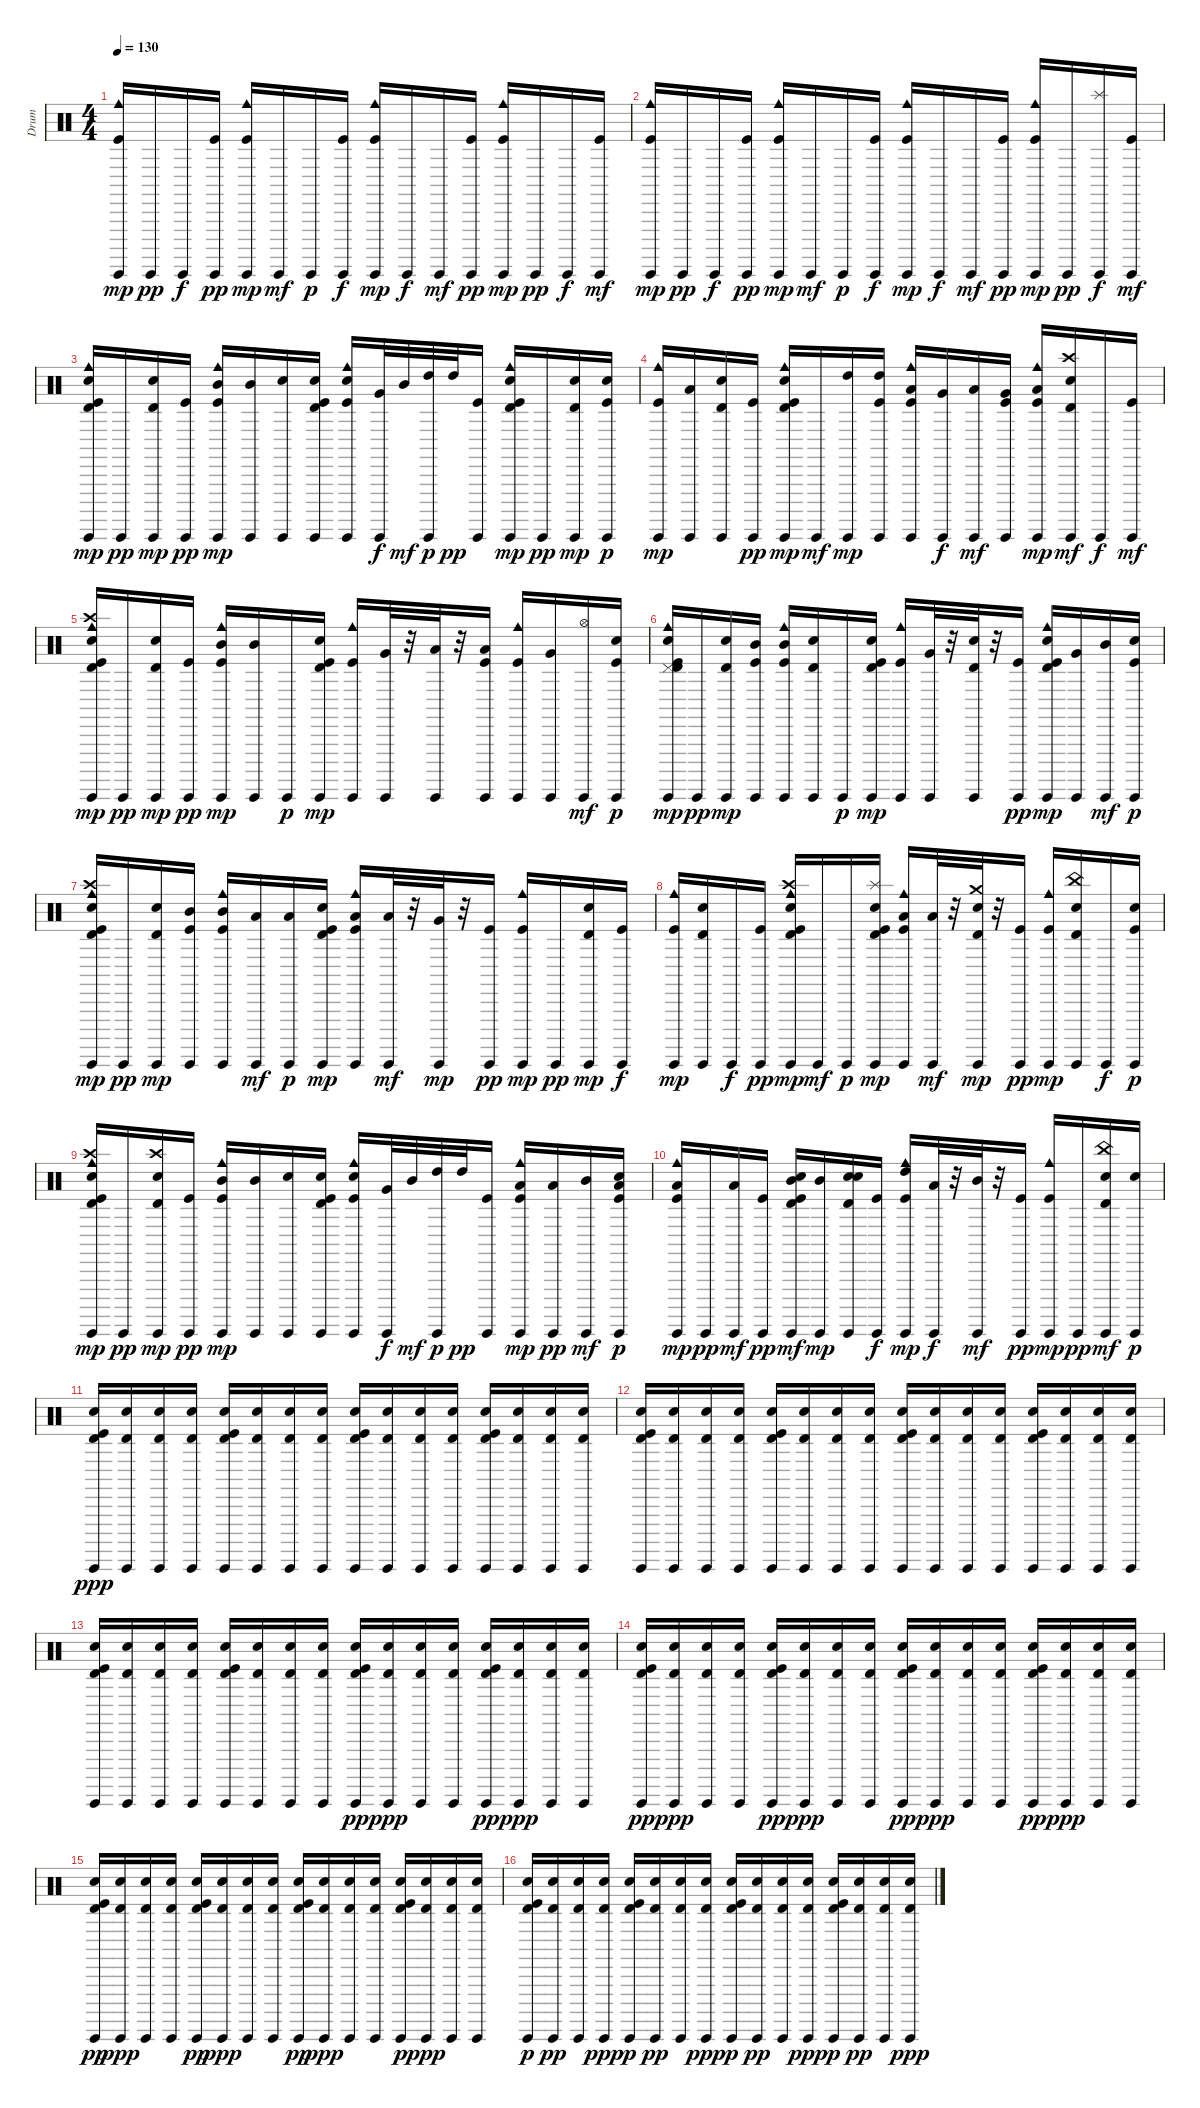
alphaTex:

\track ("Drum" "Drum") {instrument percussion}
\staff {score}
\articulation defaults
\ts (4 4)
\tempo 130
\clef neutral
\ks c
("Guiro (hit)" "Cowbell medium (hit)" "Kick (hit)").16{dy mp} "Guiro (hit)".16{dy pp} "Guiro (hit)".16{dy f} ("Guiro (hit)" "Kick (hit)").16{dy pp} ("Guiro (hit)" "Cowbell medium (hit)" "Kick (hit)").16{dy mp} "Guiro (hit)".16{dy mf} "Guiro (hit)".16{dy p} ("Guiro (hit)" "Kick (hit)").16{dy f} ("Guiro (hit)" "Cowbell medium (hit)" "Kick (hit)").16{dy mp} "Guiro (hit)".16{dy f} "Guiro (hit)".16{dy mf} ("Guiro (hit)" "Kick (hit)").16{dy pp} ("Guiro (hit)" "Cowbell medium (hit)" "Kick (hit)").16{dy mp} "Guiro (hit)".16{dy pp} "Guiro (hit)".16{dy f} ("Guiro (hit)" "Kick (hit)").16{dy mf} |
("Guiro (hit)" "Cowbell medium (hit)" "Kick (hit)").16{dy mp} "Guiro (hit)".16{dy pp} "Guiro (hit)".16{dy f} ("Guiro (hit)" "Kick (hit)").16{dy pp} ("Guiro (hit)" "Cowbell medium (hit)" "Kick (hit)").16{dy mp} "Guiro (hit)".16{dy mf} "Guiro (hit)".16{dy p} ("Guiro (hit)" "Kick (hit)").16{dy f} ("Guiro (hit)" "Cowbell medium (hit)" "Kick (hit)").16{dy mp} "Guiro (hit)".16{dy f} "Guiro (hit)".16{dy mf} ("Guiro (hit)" "Kick (hit)").16{dy pp} ("Guiro (hit)" "Cowbell medium (hit)" "Kick (hit)").16{dy mp} "Guiro (hit)".16{dy pp} ("Guiro (hit)" "Splash (hit)").16{dy f} ("Guiro (hit)" "Kick (hit)").16{dy mf} |
("Guiro (hit)" "Electric Snare (hit)" "Cowbell medium (hit)" "Timbale high (hit)" "Kick (hit)").16{dy mp} "Guiro (hit)".16{dy pp} ("Guiro (hit)" "Electric Snare (hit)" "Timbale high (hit)").16{dy mp} ("Guiro (hit)" "Kick (hit)").16{dy pp} ("Guiro (hit)" "Mid Tom (hit)" "Cowbell medium (hit)" "Kick (hit)").16{dy mp} ("Guiro (hit)" "Mid Tom (hit)").16 ("Guiro (hit)" "Electric Snare (hit)").16 ("Guiro (hit)" "Electric Snare (hit)" "Timbale high (hit)" "Kick (hit)").16 ("Guiro (hit)" "Electric Snare (hit)" "Cowbell medium (hit)" "Kick (hit)").16 ("Guiro (hit)" "Very Low Tom (hit)").32{dy f} "Mid Tom (hit)".32{dy mf} ("Guiro (hit)" "High Tom (hit)").32{dy p} "High Tom (hit)".32{dy pp} ("Guiro (hit)" "Kick (hit)").16 ("Guiro (hit)" "Timbale high (hit)" "Cowbell medium (hit)" "Electric Snare (hit)" "Kick (hit)").16{dy mp} "Guiro (hit)".16{dy pp} ("Guiro (hit)" "Timbale high (hit)" "Electric Snare (hit)").16{dy mp} ("Guiro (hit)" "Electric Snare (hit)" "Kick (hit)").16{dy p} |
("Guiro (hit)" "Cowbell medium (hit)" "Kick (hit)").16{dy mp} ("Guiro (hit)" "Low Tom (hit)").16 ("Timbale high (hit)" "Guiro (hit)" "Electric Snare (hit)").16 ("Guiro (hit)" "Kick (hit)").16{dy pp} ("Guiro (hit)" "Timbale high (hit)" "Electric Snare (hit)" "Cowbell medium (hit)" "Kick (hit)").16{dy mp} "Guiro (hit)".16{dy mf} ("Guiro (hit)" "High Tom (hit)").16{dy mp} ("Guiro (hit)" "High Tom (hit)" "Kick (hit)").16 ("Guiro (hit)" "Low Tom (hit)" "Cowbell medium (hit)" "Kick (hit)").16 ("Guiro (hit)" "Very Low Tom (hit)").16{dy f} ("Guiro (hit)" "Low Tom (hit)").16{dy mf} ("Guiro (hit)" "Very Low Tom (hit)" "Kick (hit)").16 ("Guiro (hit)" "Low Tom (hit)" "Cowbell medium (hit)" "Kick (hit)").16{dy mp} ("Guiro (hit)" "Timbale high (hit)" "Electric Snare (hit)" "Crash high (hit)").16{dy mf} "Guiro (hit)".16{dy f} ("Guiro (hit)" "Kick (hit)").16{dy mf} |
("Crash high (hit)" "Guiro (hit)" "Electric Snare (hit)" "Cowbell medium (hit)" "Timbale high (hit)" "Kick (hit)").16{dy mp} "Guiro (hit)".16{dy pp} ("Guiro (hit)" "Electric Snare (hit)" "Timbale high (hit)").16{dy mp} ("Guiro (hit)" "Kick (hit)").16{dy pp} ("Guiro (hit)" "Mid Tom (hit)" "Cowbell medium (hit)" "Kick (hit)").16{dy mp} ("Guiro (hit)" "Mid Tom (hit)").16 "Guiro (hit)".16{dy p} ("Guiro (hit)" "Electric Snare (hit)" "Timbale high (hit)" "Kick (hit)").16{dy mp} ("Guiro (hit)" "Cowbell medium (hit)" "Kick (hit)").16 ("Guiro (hit)" "Very Low Tom (hit)").32 r.32 ("Guiro (hit)" "Low Tom (hit)").32 r.32 ("Guiro (hit)" "Low Tom (hit)" "Kick (hit)").16 ("Guiro (hit)" "Cowbell medium (hit)" "Kick (hit)").16 ("Guiro (hit)" "Very Low Tom (hit)").16 ("Guiro (hit)" "Hi-Hat (open)").16{dy mf} ("Guiro (hit)" "Electric Snare (hit)" "Kick (hit)").16{dy p} |
("Pedal Hi-Hat (hit)" "Guiro (hit)" "Electric Snare (hit)" "Cowbell medium (hit)" "Timbale high (hit)" "Kick (hit)").16{dy mp} "Guiro (hit)".16{dy pp} ("Guiro (hit)" "Electric Snare (hit)" "Timbale high (hit)").16{dy mp} ("Guiro (hit)" "Mid Tom (hit)" "Kick (hit)").16 ("Guiro (hit)" "Mid Tom (hit)" "Cowbell medium (hit)" "Kick (hit)").16 ("Guiro (hit)" "Electric Snare (hit)" "Timbale high (hit)").16 "Guiro (hit)".16{dy p} ("Guiro (hit)" "Electric Snare (hit)" "Timbale high (hit)" "Kick (hit)").16{dy mp} ("Guiro (hit)" "Cowbell medium (hit)" "Kick (hit)").16 ("Guiro (hit)" "Very Low Tom (hit)").32 r.32 ("Guiro (hit)" "Timbale high (hit)" "Electric Snare (hit)").32 r.32 ("Guiro (hit)" "Kick (hit)").16{dy pp} ("Guiro (hit)" "Timbale high (hit)" "Cowbell medium (hit)" "Electric Snare (hit)" "Kick (hit)").16{dy mp} ("Guiro (hit)" "Very Low Tom (hit)").16 ("Guiro (hit)" "Mid Tom (hit)").16{dy mf} ("Guiro (hit)" "Electric Snare (hit)" "Kick (hit)").16{dy p} |
("Crash high (hit)" "Guiro (hit)" "Electric Snare (hit)" "Cowbell medium (hit)" "Timbale high (hit)" "Kick (hit)").16{dy mp} "Guiro (hit)".16{dy pp} ("Guiro (hit)" "Electric Snare (hit)" "Timbale high (hit)").16{dy mp} ("Guiro (hit)" "Mid Tom (hit)" "Kick (hit)").16 ("Guiro (hit)" "Mid Tom (hit)" "Cowbell medium (hit)" "Kick (hit)").16 ("Guiro (hit)" "Low Tom (hit)").16{dy mf} ("Guiro (hit)" "Low Tom (hit)").16{dy p} ("Guiro (hit)" "Electric Snare (hit)" "Timbale high (hit)" "Kick (hit)").16{dy mp} ("Guiro (hit)" "Low Floor Tom (hit)" "Cowbell medium (hit)" "Kick (hit)").16 ("Guiro (hit)" "Low Tom (hit)").32{dy mf} r.32 ("Guiro (hit)" "Very Low Tom (hit)").32{dy mp} r.32 ("Guiro (hit)" "Kick (hit)").16{dy pp} ("Guiro (hit)" "Cowbell medium (hit)" "Kick (hit)").16{dy mp} "Guiro (hit)".16{dy pp} ("Guiro (hit)" "Timbale high (hit)" "Electric Snare (hit)").16{dy mp} ("Guiro (hit)" "Kick (hit)").16{dy f} |
("Guiro (hit)" "Cowbell medium (hit)" "Kick (hit)").16{dy mp} ("Guiro (hit)" "Electric Snare (hit)" "Timbale high (hit)").16 "Guiro (hit)".16{dy f} ("Guiro (hit)" "Kick (hit)").16{dy pp} ("Guiro (hit)" "Crash high (hit)" "Electric Snare (hit)" "Timbale high (hit)" "Cowbell medium (hit)" "Kick (hit)").16{dy mp} "Guiro (hit)".16{dy mf} "Guiro (hit)".16{dy p} ("Guiro (hit)" "Splash (hit)" "Electric Snare (hit)" "Timbale high (hit)" "Kick (hit)").16{dy mp} ("Guiro (hit)" "Low Floor Tom (hit)" "Cowbell medium (hit)" "Kick (hit)").16 ("Guiro (hit)" "Low Tom (hit)").32{dy mf} r.32 ("Guiro (hit)" "Crash medium (hit)" "Electric Snare (hit)" "Timbale high (hit)").32{dy mp} r.32 ("Guiro (hit)" "Kick (hit)").16{dy pp} ("Guiro (hit)" "Cowbell medium (hit)" "Kick (hit)").16{dy mp} ("Guiro (hit)" "China (hit)" "Electric Snare (hit)" "Timbale high (hit)").16 "Guiro (hit)".16{dy f} ("Guiro (hit)" "Electric Snare (hit)" "Kick (hit)").16{dy p} |
("Crash high (hit)" "Guiro (hit)" "Electric Snare (hit)" "Cowbell medium (hit)" "Timbale high (hit)" "Kick (hit)").16{dy mp} "Guiro (hit)".16{dy pp} ("Crash high (hit)" "Guiro (hit)" "Electric Snare (hit)" "Timbale high (hit)").16{dy mp} ("Guiro (hit)" "Kick (hit)").16{dy pp} ("Guiro (hit)" "Mid Tom (hit)" "Cowbell medium (hit)" "Kick (hit)").16{dy mp} ("Guiro (hit)" "Mid Tom (hit)").16 ("Guiro (hit)" "Electric Snare (hit)").16 ("Guiro (hit)" "Electric Snare (hit)" "Timbale high (hit)" "Kick (hit)").16 ("Guiro (hit)" "Electric Snare (hit)" "Cowbell medium (hit)" "Kick (hit)").16 ("Guiro (hit)" "Very Low Tom (hit)").32{dy f} "Mid Tom (hit)".32{dy mf} ("Guiro (hit)" "High Tom (hit)").32{dy p} "High Tom (hit)".32{dy pp} ("Guiro (hit)" "Kick (hit)").16 ("Guiro (hit)" "Low Tom (hit)" "Cowbell medium (hit)" "Kick (hit)").16{dy mp} ("Guiro (hit)" "Low Tom (hit)").16{dy pp} ("Guiro (hit)" "Mid Tom (hit)").16{dy mf} ("Guiro (hit)" "Low Tom (hit)" "Electric Snare (hit)" "Kick (hit)").16{dy p} |
("Guiro (hit)" "Low Tom (hit)" "Cowbell medium (hit)" "Kick (hit)").16{dy mp} "Guiro (hit)".16{dy pp} ("Guiro (hit)" "Low Tom (hit)").16{dy mf} ("Guiro (hit)" "Kick (hit)").16{dy pp} ("Guiro (hit)" "Timbale high (hit)" "Mid Tom (hit)" "Electric Snare (hit)" "Kick (hit)").16{dy mf} ("Guiro (hit)" "Mid Tom (hit)").16{dy mp} ("Guiro (hit)" "Timbale high (hit)" "Electric Snare (hit)" "Electric Snare (hit)").16 ("Guiro (hit)" "Kick (hit)").16{dy f} ("Guiro (hit)" "High Tom (hit)" "Cowbell medium (hit)" "Kick (hit)").16{dy mp} ("Guiro (hit)" "Low Tom (hit)").32{dy f} r.32 ("Guiro (hit)" "Mid Tom (hit)").32{dy mf} r.32 ("Guiro (hit)" "Kick (hit)").16{dy pp} ("Guiro (hit)" "Cowbell medium (hit)" "Kick (hit)").16{dy mp} "Guiro (hit)".16{dy pp} ("Guiro (hit)" "Timbale high (hit)" "Electric Snare (hit)" "China (hit)").16{dy mf} ("Guiro (hit)" "Electric Snare (hit)").16{dy p} |
("Guiro (hit)" "Electric Snare (hit)" "Timbale high (hit)" "Kick (hit)").16{dy ppp} ("Guiro (hit)" "Electric Snare (hit)" "Timbale high (hit)").16 ("Guiro (hit)" "Electric Snare (hit)" "Timbale high (hit)").16 ("Guiro (hit)" "Electric Snare (hit)" "Timbale high (hit)").16 ("Guiro (hit)" "Electric Snare (hit)" "Timbale high (hit)" "Kick (hit)").16 ("Guiro (hit)" "Electric Snare (hit)" "Timbale high (hit)").16 ("Guiro (hit)" "Electric Snare (hit)" "Timbale high (hit)").16 ("Guiro (hit)" "Electric Snare (hit)" "Timbale high (hit)").16 ("Guiro (hit)" "Electric Snare (hit)" "Timbale high (hit)" "Kick (hit)").16 ("Guiro (hit)" "Electric Snare (hit)" "Timbale high (hit)").16 ("Guiro (hit)" "Electric Snare (hit)" "Timbale high (hit)").16 ("Guiro (hit)" "Electric Snare (hit)" "Timbale high (hit)").16 ("Guiro (hit)" "Electric Snare (hit)" "Timbale high (hit)" "Kick (hit)").16 ("Guiro (hit)" "Electric Snare (hit)" "Timbale high (hit)").16 ("Guiro (hit)" "Electric Snare (hit)" "Timbale high (hit)").16 ("Guiro (hit)" "Electric Snare (hit)" "Timbale high (hit)").16 |
("Guiro (hit)" "Electric Snare (hit)" "Timbale high (hit)" "Kick (hit)").16 ("Guiro (hit)" "Electric Snare (hit)" "Timbale high (hit)").16 ("Guiro (hit)" "Electric Snare (hit)" "Timbale high (hit)").16 ("Guiro (hit)" "Electric Snare (hit)" "Timbale high (hit)").16 ("Guiro (hit)" "Electric Snare (hit)" "Timbale high (hit)" "Kick (hit)").16 ("Guiro (hit)" "Electric Snare (hit)" "Timbale high (hit)").16 ("Guiro (hit)" "Electric Snare (hit)" "Timbale high (hit)").16 ("Guiro (hit)" "Electric Snare (hit)" "Timbale high (hit)").16 ("Guiro (hit)" "Electric Snare (hit)" "Timbale high (hit)" "Kick (hit)").16 ("Guiro (hit)" "Electric Snare (hit)" "Timbale high (hit)").16 ("Guiro (hit)" "Electric Snare (hit)" "Timbale high (hit)").16 ("Guiro (hit)" "Electric Snare (hit)" "Timbale high (hit)").16 ("Guiro (hit)" "Electric Snare (hit)" "Timbale high (hit)" "Kick (hit)").16 ("Guiro (hit)" "Electric Snare (hit)" "Timbale high (hit)").16 ("Guiro (hit)" "Electric Snare (hit)" "Timbale high (hit)").16 ("Guiro (hit)" "Electric Snare (hit)" "Timbale high (hit)").16 |
("Guiro (hit)" "Electric Snare (hit)" "Timbale high (hit)" "Kick (hit)").16 ("Guiro (hit)" "Electric Snare (hit)" "Timbale high (hit)").16 ("Guiro (hit)" "Electric Snare (hit)" "Timbale high (hit)").16 ("Guiro (hit)" "Electric Snare (hit)" "Timbale high (hit)").16 ("Guiro (hit)" "Electric Snare (hit)" "Timbale high (hit)" "Kick (hit)").16 ("Guiro (hit)" "Electric Snare (hit)" "Timbale high (hit)").16 ("Guiro (hit)" "Electric Snare (hit)" "Timbale high (hit)").16 ("Guiro (hit)" "Electric Snare (hit)" "Timbale high (hit)").16 ("Guiro (hit)" "Electric Snare (hit)" "Timbale high (hit)" "Kick (hit)").16{dy pp} ("Guiro (hit)" "Electric Snare (hit)" "Timbale high (hit)").16{dy ppp} ("Guiro (hit)" "Electric Snare (hit)" "Timbale high (hit)").16 ("Guiro (hit)" "Electric Snare (hit)" "Timbale high (hit)").16 ("Guiro (hit)" "Electric Snare (hit)" "Timbale high (hit)" "Kick (hit)").16{dy pp} ("Guiro (hit)" "Electric Snare (hit)" "Timbale high (hit)").16{dy ppp} ("Guiro (hit)" "Electric Snare (hit)" "Timbale high (hit)").16 ("Guiro (hit)" "Electric Snare (hit)" "Timbale high (hit)").16 |
("Guiro (hit)" "Electric Snare (hit)" "Timbale high (hit)" "Kick (hit)").16{dy pp} ("Guiro (hit)" "Electric Snare (hit)" "Timbale high (hit)").16{dy ppp} ("Guiro (hit)" "Electric Snare (hit)" "Timbale high (hit)").16 ("Guiro (hit)" "Electric Snare (hit)" "Timbale high (hit)").16 ("Guiro (hit)" "Electric Snare (hit)" "Timbale high (hit)" "Kick (hit)").16{dy pp} ("Guiro (hit)" "Electric Snare (hit)" "Timbale high (hit)").16{dy ppp} ("Guiro (hit)" "Electric Snare (hit)" "Timbale high (hit)").16 ("Guiro (hit)" "Electric Snare (hit)" "Timbale high (hit)").16 ("Guiro (hit)" "Electric Snare (hit)" "Timbale high (hit)" "Kick (hit)").16{dy pp} ("Guiro (hit)" "Electric Snare (hit)" "Timbale high (hit)").16{dy ppp} ("Guiro (hit)" "Electric Snare (hit)" "Timbale high (hit)").16 ("Guiro (hit)" "Electric Snare (hit)" "Timbale high (hit)").16 ("Guiro (hit)" "Electric Snare (hit)" "Timbale high (hit)" "Kick (hit)").16{dy pp} ("Guiro (hit)" "Electric Snare (hit)" "Timbale high (hit)").16{dy ppp} ("Guiro (hit)" "Electric Snare (hit)" "Timbale high (hit)").16 ("Guiro (hit)" "Electric Snare (hit)" "Timbale high (hit)").16 |
("Guiro (hit)" "Electric Snare (hit)" "Timbale high (hit)" "Kick (hit)").16{dy pp} ("Guiro (hit)" "Electric Snare (hit)" "Timbale high (hit)").16{dy ppp} ("Guiro (hit)" "Electric Snare (hit)" "Timbale high (hit)").16 ("Guiro (hit)" "Electric Snare (hit)" "Timbale high (hit)").16 ("Guiro (hit)" "Electric Snare (hit)" "Timbale high (hit)" "Kick (hit)").16{dy pp} ("Guiro (hit)" "Electric Snare (hit)" "Timbale high (hit)").16{dy ppp} ("Guiro (hit)" "Electric Snare (hit)" "Timbale high (hit)").16 ("Guiro (hit)" "Electric Snare (hit)" "Timbale high (hit)").16 ("Guiro (hit)" "Electric Snare (hit)" "Timbale high (hit)" "Kick (hit)").16{dy pp} ("Guiro (hit)" "Electric Snare (hit)" "Timbale high (hit)").16{dy ppp} ("Guiro (hit)" "Electric Snare (hit)" "Timbale high (hit)").16 ("Guiro (hit)" "Electric Snare (hit)" "Timbale high (hit)").16 ("Guiro (hit)" "Electric Snare (hit)" "Timbale high (hit)" "Kick (hit)").16{dy p} ("Guiro (hit)" "Electric Snare (hit)" "Timbale high (hit)").16{dy ppp} ("Guiro (hit)" "Electric Snare (hit)" "Timbale high (hit)").16 ("Guiro (hit)" "Electric Snare (hit)" "Timbale high (hit)").16 |
("Guiro (hit)" "Electric Snare (hit)" "Timbale high (hit)" "Kick (hit)").16{dy p} ("Guiro (hit)" "Electric Snare (hit)" "Timbale high (hit)").16{dy pp} ("Guiro (hit)" "Electric Snare (hit)" "Timbale high (hit)").16 ("Guiro (hit)" "Electric Snare (hit)" "Timbale high (hit)").16{dy ppp} ("Guiro (hit)" "Electric Snare (hit)" "Timbale high (hit)" "Kick (hit)").16{dy p} ("Guiro (hit)" "Electric Snare (hit)" "Timbale high (hit)").16{dy pp} ("Guiro (hit)" "Electric Snare (hit)" "Timbale high (hit)").16 ("Guiro (hit)" "Electric Snare (hit)" "Timbale high (hit)").16{dy ppp} ("Guiro (hit)" "Electric Snare (hit)" "Timbale high (hit)" "Kick (hit)").16{dy p} ("Guiro (hit)" "Electric Snare (hit)" "Timbale high (hit)").16{dy pp} ("Guiro (hit)" "Electric Snare (hit)" "Timbale high (hit)").16 ("Guiro (hit)" "Electric Snare (hit)" "Timbale high (hit)").16{dy ppp} ("Guiro (hit)" "Electric Snare (hit)" "Timbale high (hit)" "Kick (hit)").16{dy p} ("Guiro (hit)" "Electric Snare (hit)" "Timbale high (hit)").16{dy pp} ("Guiro (hit)" "Electric Snare (hit)" "Timbale high (hit)").16 ("Guiro (hit)" "Electric Snare (hit)" "Timbale high (hit)").16{dy ppp}
